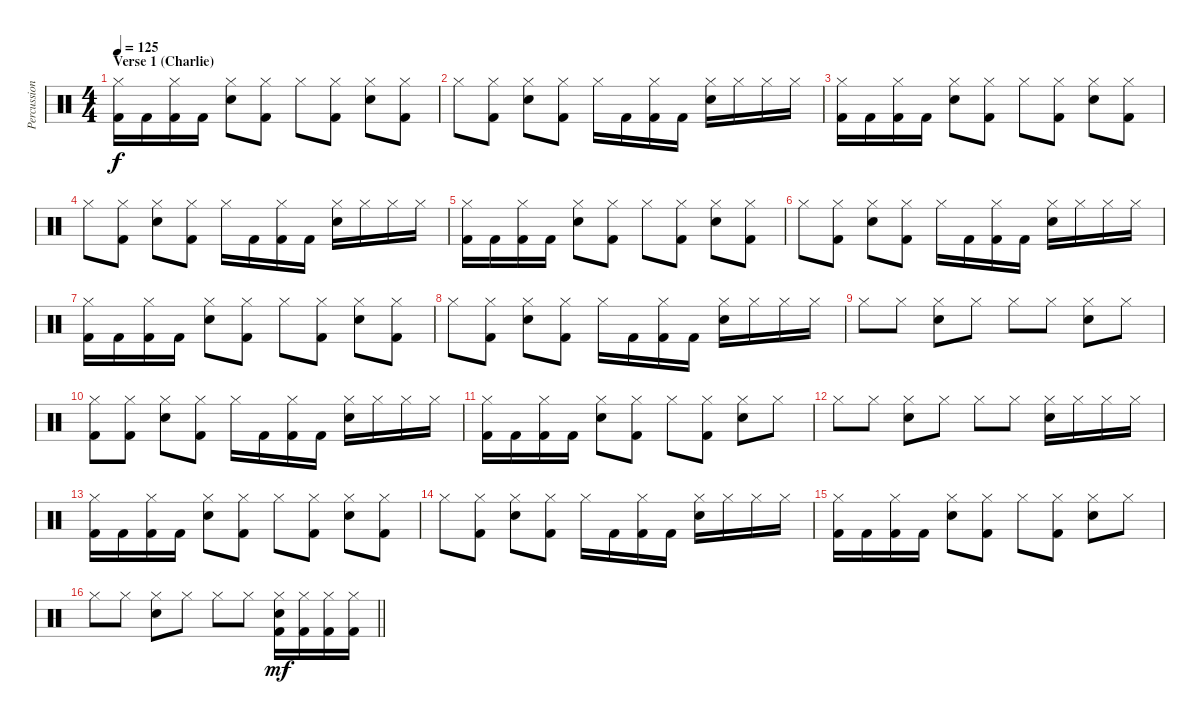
\track ("Percussion" "Percussion") {instrument percussion}
\staff {score}
\articulation defaults
\ts (4 4)
\section ("" "Verse 1 (Charlie)")
\tempo 125
\clef neutral
\ks c
("Hi-Hat (closed)" "Kick (hit) 2").16{dy f} "Kick (hit) 2".16 ("Hi-Hat (closed)" "Kick (hit) 2").16 "Kick (hit) 2".16 ("Hi-Hat (closed)" "Electric Snare (hit)").8 ("Hi-Hat (closed)" "Kick (hit) 2").8 "Hi-Hat (closed)".8 ("Hi-Hat (closed)" "Kick (hit) 2").8 ("Hi-Hat (closed)" "Electric Snare (hit)").8 ("Hi-Hat (closed)" "Kick (hit) 2").8 |
"Hi-Hat (closed)".8 ("Hi-Hat (closed)" "Kick (hit) 2").8 ("Hi-Hat (closed)" "Electric Snare (hit)").8 ("Hi-Hat (closed)" "Kick (hit) 2").8 "Hi-Hat (closed)".16 "Kick (hit) 2".16 ("Hi-Hat (closed)" "Kick (hit) 2").16 "Kick (hit) 2".16 ("Hi-Hat (closed)" "Electric Snare (hit)").16 "Hi-Hat (closed)".16 "Hi-Hat (closed)".16 "Hi-Hat (closed)".16 |
("Hi-Hat (closed)" "Kick (hit) 2").16 "Kick (hit) 2".16 ("Hi-Hat (closed)" "Kick (hit) 2").16 "Kick (hit) 2".16 ("Hi-Hat (closed)" "Electric Snare (hit)").8 ("Hi-Hat (closed)" "Kick (hit) 2").8 "Hi-Hat (closed)".8 ("Hi-Hat (closed)" "Kick (hit) 2").8 ("Hi-Hat (closed)" "Electric Snare (hit)").8 ("Hi-Hat (closed)" "Kick (hit) 2").8 |
"Hi-Hat (closed)".8 ("Hi-Hat (closed)" "Kick (hit) 2").8 ("Hi-Hat (closed)" "Electric Snare (hit)").8 ("Hi-Hat (closed)" "Kick (hit) 2").8 "Hi-Hat (closed)".16 "Kick (hit) 2".16 ("Hi-Hat (closed)" "Kick (hit) 2").16 "Kick (hit) 2".16 ("Hi-Hat (closed)" "Electric Snare (hit)").16 "Hi-Hat (closed)".16 "Hi-Hat (closed)".16 "Hi-Hat (closed)".16 |
("Hi-Hat (closed)" "Kick (hit) 2").16 "Kick (hit) 2".16 ("Hi-Hat (closed)" "Kick (hit) 2").16 "Kick (hit) 2".16 ("Hi-Hat (closed)" "Electric Snare (hit)").8 ("Hi-Hat (closed)" "Kick (hit) 2").8 "Hi-Hat (closed)".8 ("Hi-Hat (closed)" "Kick (hit) 2").8 ("Hi-Hat (closed)" "Electric Snare (hit)").8 ("Hi-Hat (closed)" "Kick (hit) 2").8 |
"Hi-Hat (closed)".8 ("Hi-Hat (closed)" "Kick (hit) 2").8 ("Hi-Hat (closed)" "Electric Snare (hit)").8 ("Hi-Hat (closed)" "Kick (hit) 2").8 "Hi-Hat (closed)".16 "Kick (hit) 2".16 ("Hi-Hat (closed)" "Kick (hit) 2").16 "Kick (hit) 2".16 ("Hi-Hat (closed)" "Electric Snare (hit)").16 "Hi-Hat (closed)".16 "Hi-Hat (closed)".16 "Hi-Hat (closed)".16 |
("Hi-Hat (closed)" "Kick (hit) 2").16 "Kick (hit) 2".16 ("Hi-Hat (closed)" "Kick (hit) 2").16 "Kick (hit) 2".16 ("Hi-Hat (closed)" "Electric Snare (hit)").8 ("Hi-Hat (closed)" "Kick (hit) 2").8 "Hi-Hat (closed)".8 ("Hi-Hat (closed)" "Kick (hit) 2").8 ("Hi-Hat (closed)" "Electric Snare (hit)").8 ("Hi-Hat (closed)" "Kick (hit) 2").8 |
"Hi-Hat (closed)".8 ("Hi-Hat (closed)" "Kick (hit) 2").8 ("Hi-Hat (closed)" "Electric Snare (hit)").8 ("Hi-Hat (closed)" "Kick (hit) 2").8 "Hi-Hat (closed)".16 "Kick (hit) 2".16 ("Hi-Hat (closed)" "Kick (hit) 2").16 "Kick (hit) 2".16 ("Hi-Hat (closed)" "Electric Snare (hit)").16 "Hi-Hat (closed)".16 "Hi-Hat (closed)".16 "Hi-Hat (closed)".16 |
"Hi-Hat (closed)".8 "Hi-Hat (closed)".8 ("Hi-Hat (closed)" "Electric Snare (hit)").8 "Hi-Hat (closed)".8 "Hi-Hat (closed)".8 "Hi-Hat (closed)".8 ("Hi-Hat (closed)" "Electric Snare (hit)").8 "Hi-Hat (closed)".8 |
("Hi-Hat (closed)" "Kick (hit) 2").8 ("Hi-Hat (closed)" "Kick (hit) 2").8 ("Hi-Hat (closed)" "Electric Snare (hit)").8 ("Hi-Hat (closed)" "Kick (hit) 2").8 "Hi-Hat (closed)".16 "Kick (hit) 2".16 ("Hi-Hat (closed)" "Kick (hit) 2").16 "Kick (hit) 2".16 ("Hi-Hat (closed)" "Electric Snare (hit)").16 "Hi-Hat (closed)".16 "Hi-Hat (closed)".16 "Hi-Hat (closed)".16 |
("Hi-Hat (closed)" "Kick (hit) 2").16 "Kick (hit) 2".16 ("Hi-Hat (closed)" "Kick (hit) 2").16 "Kick (hit) 2".16 ("Hi-Hat (closed)" "Electric Snare (hit)").8 ("Hi-Hat (closed)" "Kick (hit) 2").8 "Hi-Hat (closed)".8 ("Hi-Hat (closed)" "Kick (hit) 2").8 ("Hi-Hat (closed)" "Electric Snare (hit)").8 "Hi-Hat (closed)".8 |
"Hi-Hat (closed)".8 "Hi-Hat (closed)".8 ("Hi-Hat (closed)" "Electric Snare (hit)").8 "Hi-Hat (closed)".8 "Hi-Hat (closed)".8 "Hi-Hat (closed)".8 ("Hi-Hat (closed)" "Electric Snare (hit)").16 "Hi-Hat (closed)".16 "Hi-Hat (closed)".16 "Hi-Hat (closed)".16 |
("Hi-Hat (closed)" "Kick (hit) 2").16 "Kick (hit) 2".16 ("Hi-Hat (closed)" "Kick (hit) 2").16 "Kick (hit) 2".16 ("Hi-Hat (closed)" "Electric Snare (hit)").8 ("Hi-Hat (closed)" "Kick (hit) 2").8 "Hi-Hat (closed)".8 ("Hi-Hat (closed)" "Kick (hit) 2").8 ("Hi-Hat (closed)" "Electric Snare (hit)").8 ("Hi-Hat (closed)" "Kick (hit) 2").8 |
"Hi-Hat (closed)".8 ("Hi-Hat (closed)" "Kick (hit) 2").8 ("Hi-Hat (closed)" "Electric Snare (hit)").8 ("Hi-Hat (closed)" "Kick (hit) 2").8 "Hi-Hat (closed)".16 "Kick (hit) 2".16 ("Hi-Hat (closed)" "Kick (hit) 2").16 "Kick (hit) 2".16 ("Hi-Hat (closed)" "Electric Snare (hit)").16 "Hi-Hat (closed)".16 "Hi-Hat (closed)".16 "Hi-Hat (closed)".16 |
("Hi-Hat (closed)" "Kick (hit) 2").16 "Kick (hit) 2".16 ("Hi-Hat (closed)" "Kick (hit) 2").16 "Kick (hit) 2".16 ("Hi-Hat (closed)" "Electric Snare (hit)").8 ("Hi-Hat (closed)" "Kick (hit) 2").8 "Hi-Hat (closed)".8 ("Hi-Hat (closed)" "Kick (hit) 2").8 ("Hi-Hat (closed)" "Electric Snare (hit)").8 "Hi-Hat (closed)".8 |
\barLineRight lightlight "Hi-Hat (closed)".8 "Hi-Hat (closed)".8
("Hi-Hat (closed)" "Electric Snare (hit)").8 "Hi-Hat (closed)".8 "Hi-Hat (closed)".8 "Hi-Hat (closed)".8 ("Hi-Hat (closed)" "Electric Snare (hit)" "Kick (hit) 2").16{dy mf} ("Hi-Hat (closed)" "Kick (hit) 2").16 ("Hi-Hat (closed)" "Kick (hit) 2").16 ("Hi-Hat (closed)" "Kick (hit) 2").16
